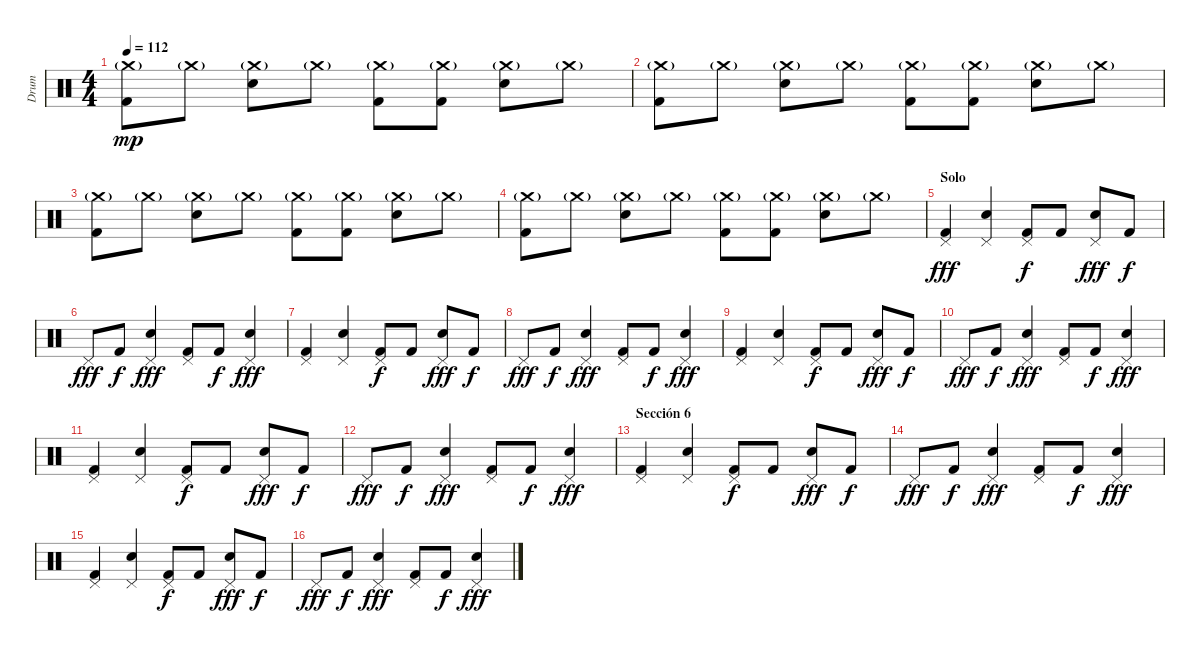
\track ("Drum" "Drum") {instrument percussion}
\staff {score}
\articulation defaults
\ts (4 4)
\tempo 112
\clef neutral
\ks c
("Crash medium (hit)"{g} "Kick (hit) 2").8{dy mp} "Crash medium (hit)"{g}.8 ("Crash medium (hit)"{g} "Electric Snare (hit)").8 "Crash medium (hit)"{g}.8 ("Crash medium (hit)"{g} "Kick (hit) 2").8 ("Crash medium (hit)"{g} "Kick (hit) 2").8 ("Crash medium (hit)"{g} "Electric Snare (hit)").8 "Crash medium (hit)"{g}.8 |
("Crash medium (hit)"{g} "Kick (hit) 2").8 "Crash medium (hit)"{g}.8 ("Crash medium (hit)"{g} "Electric Snare (hit)").8 "Crash medium (hit)"{g}.8 ("Crash medium (hit)"{g} "Kick (hit) 2").8 ("Crash medium (hit)"{g} "Kick (hit) 2").8 ("Crash medium (hit)"{g} "Electric Snare (hit)").8 "Crash medium (hit)"{g}.8 |
("Crash medium (hit)"{g} "Kick (hit) 2").8 "Crash medium (hit)"{g}.8 ("Crash medium (hit)"{g} "Electric Snare (hit)").8 "Crash medium (hit)"{g}.8 ("Crash medium (hit)"{g} "Kick (hit) 2").8 ("Crash medium (hit)"{g} "Kick (hit) 2").8 ("Crash medium (hit)"{g} "Electric Snare (hit)").8 "Crash medium (hit)"{g}.8 |
("Crash medium (hit)"{g} "Kick (hit) 2").8 "Crash medium (hit)"{g}.8 ("Crash medium (hit)"{g} "Electric Snare (hit)").8 "Crash medium (hit)"{g}.8 ("Crash medium (hit)"{g} "Kick (hit) 2").8 ("Crash medium (hit)"{g} "Kick (hit) 2").8 ("Crash medium (hit)"{g} "Electric Snare (hit)").8 "Crash medium (hit)"{g}.8 |
\section ("" "Solo")
("Pedal Hi-Hat (hit)" "Kick (hit) 2").4{dy fff} ("Pedal Hi-Hat (hit)" "Electric Snare (hit)").4 ("Pedal Hi-Hat (hit)" "Kick (hit) 2").8{dy f} "Kick (hit) 2".8 ("Pedal Hi-Hat (hit)" "Electric Snare (hit)").8{dy fff} "Kick (hit) 2".8{dy f} |
"Pedal Hi-Hat (hit)".8{dy fff} "Kick (hit) 2".8{dy f} ("Pedal Hi-Hat (hit)" "Electric Snare (hit)").4{dy fff} ("Pedal Hi-Hat (hit)" "Kick (hit) 2").8 "Kick (hit) 2".8{dy f} ("Pedal Hi-Hat (hit)" "Electric Snare (hit)").4{dy fff} |
("Pedal Hi-Hat (hit)" "Kick (hit) 2").4 ("Pedal Hi-Hat (hit)" "Electric Snare (hit)").4 ("Pedal Hi-Hat (hit)" "Kick (hit) 2").8{dy f} "Kick (hit) 2".8 ("Pedal Hi-Hat (hit)" "Electric Snare (hit)").8{dy fff} "Kick (hit) 2".8{dy f} |
"Pedal Hi-Hat (hit)".8{dy fff} "Kick (hit) 2".8{dy f} ("Pedal Hi-Hat (hit)" "Electric Snare (hit)").4{dy fff} ("Pedal Hi-Hat (hit)" "Kick (hit) 2").8 "Kick (hit) 2".8{dy f} ("Pedal Hi-Hat (hit)" "Electric Snare (hit)").4{dy fff} |
("Pedal Hi-Hat (hit)" "Kick (hit) 2").4 ("Pedal Hi-Hat (hit)" "Electric Snare (hit)").4 ("Pedal Hi-Hat (hit)" "Kick (hit) 2").8{dy f} "Kick (hit) 2".8 ("Pedal Hi-Hat (hit)" "Electric Snare (hit)").8{dy fff} "Kick (hit) 2".8{dy f} |
"Pedal Hi-Hat (hit)".8{dy fff} "Kick (hit) 2".8{dy f} ("Pedal Hi-Hat (hit)" "Electric Snare (hit)").4{dy fff} ("Pedal Hi-Hat (hit)" "Kick (hit) 2").8 "Kick (hit) 2".8{dy f} ("Pedal Hi-Hat (hit)" "Electric Snare (hit)").4{dy fff} |
("Pedal Hi-Hat (hit)" "Kick (hit) 2").4 ("Pedal Hi-Hat (hit)" "Electric Snare (hit)").4 ("Pedal Hi-Hat (hit)" "Kick (hit) 2").8{dy f} "Kick (hit) 2".8 ("Pedal Hi-Hat (hit)" "Electric Snare (hit)").8{dy fff} "Kick (hit) 2".8{dy f} |
"Pedal Hi-Hat (hit)".8{dy fff} "Kick (hit) 2".8{dy f} ("Pedal Hi-Hat (hit)" "Electric Snare (hit)").4{dy fff} ("Pedal Hi-Hat (hit)" "Kick (hit) 2").8 "Kick (hit) 2".8{dy f} ("Pedal Hi-Hat (hit)" "Electric Snare (hit)").4{dy fff} |
\section ("" "Sección 6")
("Pedal Hi-Hat (hit)" "Kick (hit) 2").4 ("Pedal Hi-Hat (hit)" "Electric Snare (hit)").4 ("Pedal Hi-Hat (hit)" "Kick (hit) 2").8{dy f} "Kick (hit) 2".8 ("Pedal Hi-Hat (hit)" "Electric Snare (hit)").8{dy fff} "Kick (hit) 2".8{dy f} |
"Pedal Hi-Hat (hit)".8{dy fff} "Kick (hit) 2".8{dy f} ("Pedal Hi-Hat (hit)" "Electric Snare (hit)").4{dy fff} ("Pedal Hi-Hat (hit)" "Kick (hit) 2").8 "Kick (hit) 2".8{dy f} ("Pedal Hi-Hat (hit)" "Electric Snare (hit)").4{dy fff} |
("Pedal Hi-Hat (hit)" "Kick (hit) 2").4 ("Pedal Hi-Hat (hit)" "Electric Snare (hit)").4 ("Pedal Hi-Hat (hit)" "Kick (hit) 2").8{dy f} "Kick (hit) 2".8 ("Pedal Hi-Hat (hit)" "Electric Snare (hit)").8{dy fff} "Kick (hit) 2".8{dy f} |
"Pedal Hi-Hat (hit)".8{dy fff} "Kick (hit) 2".8{dy f} ("Pedal Hi-Hat (hit)" "Electric Snare (hit)").4{dy fff} ("Pedal Hi-Hat (hit)" "Kick (hit) 2").8 "Kick (hit) 2".8{dy f} ("Pedal Hi-Hat (hit)" "Electric Snare (hit)").4{dy fff}
